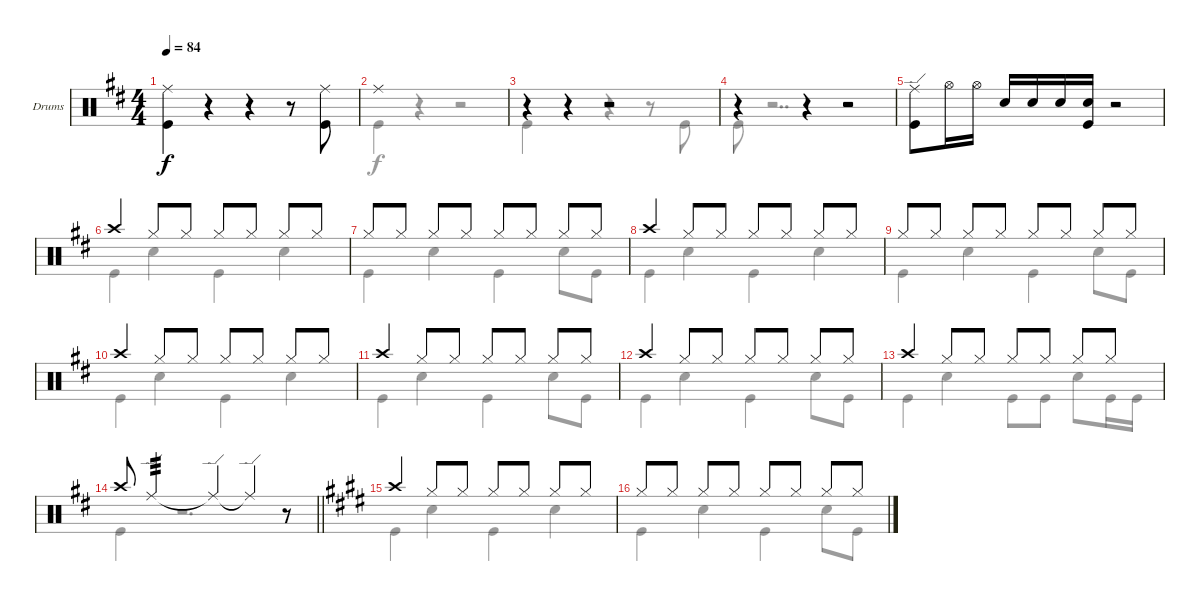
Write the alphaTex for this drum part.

\defaultSystemsLayout 4
\bracketExtendMode groupsimilarinstruments
\firstSystemTrackNameOrientation horizontal
\otherSystemsTrackNameOrientation horizontal
\track ("Drumkit" "Drums") {multiBarRest instrument percussion}
\staff {score}
\articulation defaults
\voice
\ts (4 4)
\tempo 84
\clef neutral
\ks bminor
("Ride (middle)" "Kick (hit)").4{dy f} r.4 r.4 r.8 ("Ride (middle)" "Kick (hit)").8 |
"Ride (middle)".1 |
r.4 r.4 r.2 |
r.4 r.4 r.2 |
("Kick (hit)" "Ride (edge)").8 "Hi-Hat (open)".16 "Hi-Hat (open)".16 "Snare (hit) 2".16 "Snare (hit) 2".16 "Snare (hit) 2".16 ("Snare (hit) 2" "Kick (hit)").16 r.2 |
"Crash high (hit)".4 "Hi-Hat (closed)".8 "Hi-Hat (closed)".8 "Hi-Hat (closed)".8 "Hi-Hat (closed)".8 "Hi-Hat (closed)".8 "Hi-Hat (closed)".8 |
"Hi-Hat (closed)".8 "Hi-Hat (closed)".8 "Hi-Hat (closed)".8 "Hi-Hat (closed)".8 "Hi-Hat (closed)".8 "Hi-Hat (closed)".8 "Hi-Hat (closed)".8 "Hi-Hat (closed)".8 |
"Crash high (hit)".4 "Hi-Hat (closed)".8 "Hi-Hat (closed)".8 "Hi-Hat (closed)".8 "Hi-Hat (closed)".8 "Hi-Hat (closed)".8 "Hi-Hat (closed)".8 |
"Hi-Hat (closed)".8 "Hi-Hat (closed)".8 "Hi-Hat (closed)".8 "Hi-Hat (closed)".8 "Hi-Hat (closed)".8 "Hi-Hat (closed)".8 "Hi-Hat (closed)".8 "Hi-Hat (closed)".8 |
"Crash high (hit)".4 "Hi-Hat (closed)".8 "Hi-Hat (closed)".8 "Hi-Hat (closed)".8 "Hi-Hat (closed)".8 "Hi-Hat (closed)".8 "Hi-Hat (closed)".8 |
"Crash high (hit)".4 "Hi-Hat (closed)".8 "Hi-Hat (closed)".8 "Hi-Hat (closed)".8 "Hi-Hat (closed)".8 "Hi-Hat (closed)".8 "Hi-Hat (closed)".8 |
"Crash high (hit)".4 "Hi-Hat (closed)".8 "Hi-Hat (closed)".8 "Hi-Hat (closed)".8 "Hi-Hat (closed)".8 "Hi-Hat (closed)".8 "Hi-Hat (closed)".8 |
"Crash high (hit)".4 "Hi-Hat (closed)".8 "Hi-Hat (closed)".8 "Hi-Hat (closed)".8 "Hi-Hat (closed)".8 "Hi-Hat (closed)".8 "Hi-Hat (closed)".8 |
\barLineRight lightlight "Crash high (hit)".8 "Ride (edge)".4{tp 3} "Ride (edge)"{t}.4 "Ride (edge)"{t}.4
r.8 |
\ks c#minor "Crash high (hit)".4 "Hi-Hat (closed)".8 "Hi-Hat (closed)".8 "Hi-Hat (closed)".8 "Hi-Hat (closed)".8 "Hi-Hat (closed)".8 "Hi-Hat (closed)".8
|
"Hi-Hat (closed)".8 "Hi-Hat (closed)".8 "Hi-Hat (closed)".8 "Hi-Hat (closed)".8 "Hi-Hat (closed)".8 "Hi-Hat (closed)".8 "Hi-Hat (closed)".8 "Hi-Hat (closed)".8
\voice
\clef neutral
\ottava regular
\simile none
\ks bminor
|
"Kick (hit)".4 r.4 r.2 |
"Kick (hit)".4 r.4 r.4 r.8 "Kick (hit)".8 |
"Kick (hit)".8 r.2{dd} |
|
"Kick (hit)".4 "Snare (hit) 2".4 "Kick (hit)".4 "Snare (hit) 2".4 |
"Kick (hit)".4 "Snare (hit) 2".4 "Kick (hit)".4 "Snare (hit) 2".8 "Kick (hit)".8 |
"Kick (hit)".4 "Snare (hit) 2".4 "Kick (hit)".4 "Snare (hit) 2".4 |
"Kick (hit)".4 "Snare (hit) 2".4 "Kick (hit)".4 "Snare (hit) 2".8 "Kick (hit)".8 |
"Kick (hit)".4 "Snare (hit) 2".4 "Kick (hit)".4 "Snare (hit) 2".4 |
"Kick (hit)".4 "Snare (hit) 2".4 "Kick (hit)".4 "Snare (hit) 2".8 "Kick (hit)".8 |
"Kick (hit)".4 "Snare (hit) 2".4 "Kick (hit)".4 "Snare (hit) 2".8 "Kick (hit)".8 |
"Kick (hit)".4 "Snare (hit) 2".4 "Kick (hit)".8 "Kick (hit)".8 "Snare (hit) 2".8 "Kick (hit)".16 "Kick (hit)".16 |
\barLineRight lightlight "Kick (hit)".4
r.2{d} |
\ks c#minor "Kick (hit)".4 "Snare (hit) 2".4 "Kick (hit)".4 "Snare (hit) 2".4
|
"Kick (hit)".4 "Snare (hit) 2".4 "Kick (hit)".4 "Snare (hit) 2".8 "Kick (hit)".8
